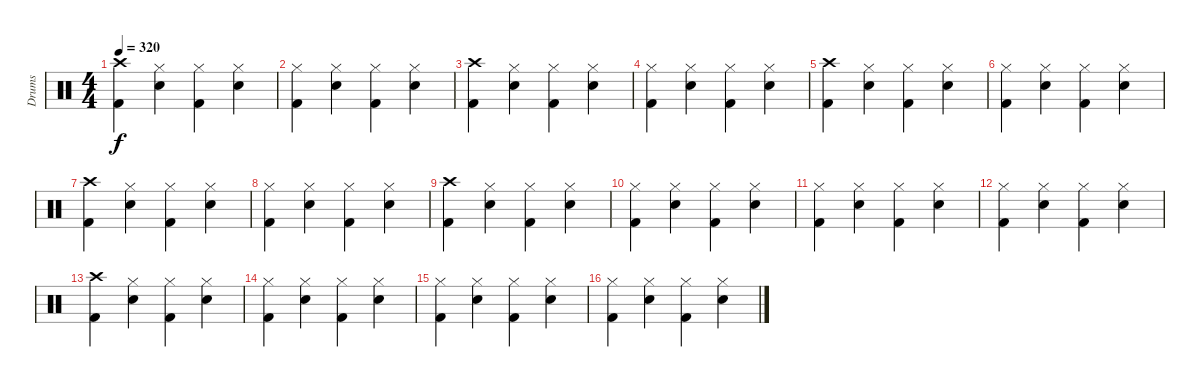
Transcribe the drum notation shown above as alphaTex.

\track ("Drums" "Drums") {instrument percussion}
\staff {score}
\articulation defaults
\ts (4 4)
\tempo 320
\clef neutral
\ks c
("Crash high (hit)" "Kick (hit) 2").4{dy f} ("Hi-Hat (closed)" "Snare (hit) 2").4 ("Hi-Hat (closed)" "Kick (hit) 2").4 ("Hi-Hat (closed)" "Snare (hit) 2").4 |
("Hi-Hat (closed)" "Kick (hit) 2").4 ("Hi-Hat (closed)" "Snare (hit) 2").4 ("Hi-Hat (closed)" "Kick (hit) 2").4 ("Hi-Hat (closed)" "Snare (hit) 2").4 |
("Crash high (hit)" "Kick (hit) 2").4 ("Hi-Hat (closed)" "Snare (hit) 2").4 ("Hi-Hat (closed)" "Kick (hit) 2").4 ("Hi-Hat (closed)" "Snare (hit) 2").4 |
("Hi-Hat (closed)" "Kick (hit) 2").4 ("Hi-Hat (closed)" "Snare (hit) 2").4 ("Hi-Hat (closed)" "Kick (hit) 2").4 ("Hi-Hat (closed)" "Snare (hit) 2").4 |
("Crash high (hit)" "Kick (hit) 2").4 ("Hi-Hat (closed)" "Snare (hit) 2").4 ("Hi-Hat (closed)" "Kick (hit) 2").4 ("Hi-Hat (closed)" "Snare (hit) 2").4 |
("Hi-Hat (closed)" "Kick (hit) 2").4 ("Hi-Hat (closed)" "Snare (hit) 2").4 ("Hi-Hat (closed)" "Kick (hit) 2").4 ("Hi-Hat (closed)" "Snare (hit) 2").4 |
("Crash high (hit)" "Kick (hit) 2").4 ("Hi-Hat (closed)" "Snare (hit) 2").4 ("Hi-Hat (closed)" "Kick (hit) 2").4 ("Hi-Hat (closed)" "Snare (hit) 2").4 |
("Hi-Hat (closed)" "Kick (hit) 2").4 ("Hi-Hat (closed)" "Snare (hit) 2").4 ("Hi-Hat (closed)" "Kick (hit) 2").4 ("Hi-Hat (closed)" "Snare (hit) 2").4 |
("Crash high (hit)" "Kick (hit) 2").4 ("Hi-Hat (closed)" "Snare (hit) 2").4 ("Hi-Hat (closed)" "Kick (hit) 2").4 ("Hi-Hat (closed)" "Snare (hit) 2").4 |
("Hi-Hat (closed)" "Kick (hit) 2").4 ("Hi-Hat (closed)" "Snare (hit) 2").4 ("Hi-Hat (closed)" "Kick (hit) 2").4 ("Hi-Hat (closed)" "Snare (hit) 2").4 |
("Hi-Hat (closed)" "Kick (hit) 2").4 ("Hi-Hat (closed)" "Snare (hit) 2").4 ("Hi-Hat (closed)" "Kick (hit) 2").4 ("Hi-Hat (closed)" "Snare (hit) 2").4 |
("Hi-Hat (closed)" "Kick (hit) 2").4 ("Hi-Hat (closed)" "Snare (hit) 2").4 ("Hi-Hat (closed)" "Kick (hit) 2").4 ("Hi-Hat (closed)" "Snare (hit) 2").4 |
("Crash high (hit)" "Kick (hit) 2").4 ("Hi-Hat (closed)" "Snare (hit) 2").4 ("Hi-Hat (closed)" "Kick (hit) 2").4 ("Hi-Hat (closed)" "Snare (hit) 2").4 |
("Hi-Hat (closed)" "Kick (hit) 2").4 ("Hi-Hat (closed)" "Snare (hit) 2").4 ("Hi-Hat (closed)" "Kick (hit) 2").4 ("Hi-Hat (closed)" "Snare (hit) 2").4 |
("Hi-Hat (closed)" "Kick (hit) 2").4 ("Hi-Hat (closed)" "Snare (hit) 2").4 ("Hi-Hat (closed)" "Kick (hit) 2").4 ("Hi-Hat (closed)" "Snare (hit) 2").4 |
("Hi-Hat (closed)" "Kick (hit) 2").4 ("Hi-Hat (closed)" "Snare (hit) 2").4 ("Hi-Hat (closed)" "Kick (hit) 2").4 ("Hi-Hat (closed)" "Snare (hit) 2").4
